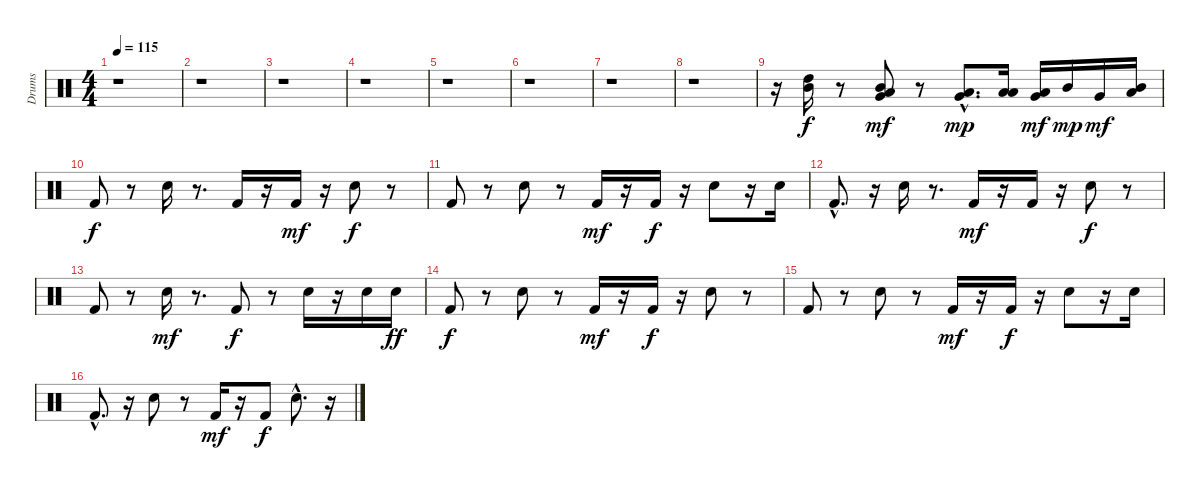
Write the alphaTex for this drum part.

\track ("Drums" "Drums") {instrument percussion}
\staff {score}
\articulation defaults
\ts (4 4)
\tempo 115
\clef neutral
\ks c
r.1{dy f} |
r.1 |
r.1 |
r.1 |
r.1 |
r.1 |
r.1 |
r.1 |
r.16 ("High Tom (hit)" "Mid Tom (hit)").16 r.8 ("Low Tom (hit)" "Mid Tom (hit)" "Very Low Tom (hit)").8{dy mf} r.8 ("Low Tom (hit)"{hac} "Very Low Tom (hit)"{hac}).8{d dy mp} ("Low Tom (hit)" "Low Floor Tom (hit)").16 ("Very Low Tom (hit)" "Low Tom (hit)").16{dy mf} "Mid Tom (hit)".16{dy mp} "Very Low Tom (hit)".16{dy mf} ("Low Tom (hit)" "Mid Tom (hit)").16 |
"Kick (hit) 2".8{dy f} r.8 "Electric Snare (hit)".16 r.8{d} "Kick (hit) 2".16 r.16 "Kick (hit) 2".16{dy mf} r.16 "Electric Snare (hit)".8{dy f} r.8 |
"Kick (hit) 2".8 r.8 "Electric Snare (hit)".8 r.8 "Kick (hit) 2".16{dy mf} r.16 "Kick (hit) 2".16{dy f} r.16 "Electric Snare (hit)".8 r.16 "Electric Snare (hit)".16 |
"Kick (hit) 2"{hac}.8{d} r.16 "Electric Snare (hit)".16 r.8{d} "Kick (hit) 2".16{dy mf} r.16 "Kick (hit) 2".16 r.16 "Electric Snare (hit)".8{dy f} r.8 |
"Kick (hit) 2".8 r.8 "Electric Snare (hit)".16{dy mf} r.8{d} "Kick (hit) 2".8{dy f} r.8 "Electric Snare (hit)".16 r.16 "Electric Snare (hit)".16 "Electric Snare (hit)".16{dy ff} |
"Kick (hit) 2".8{dy f} r.8 "Electric Snare (hit)".8 r.8 "Kick (hit) 2".16{dy mf} r.16 "Kick (hit) 2".16{dy f} r.16 "Electric Snare (hit)".8 r.8 |
"Kick (hit) 2".8 r.8 "Electric Snare (hit)".8 r.8 "Kick (hit) 2".16{dy mf} r.16 "Kick (hit) 2".16{dy f} r.16 "Electric Snare (hit)".8 r.16 "Electric Snare (hit)".16 |
"Kick (hit) 2"{hac}.8{d} r.16 "Electric Snare (hit)".8 r.8 "Kick (hit) 2".16{dy mf} r.16 "Kick (hit) 2".8{dy f} "Electric Snare (hit)"{hac}.8{d} r.16
